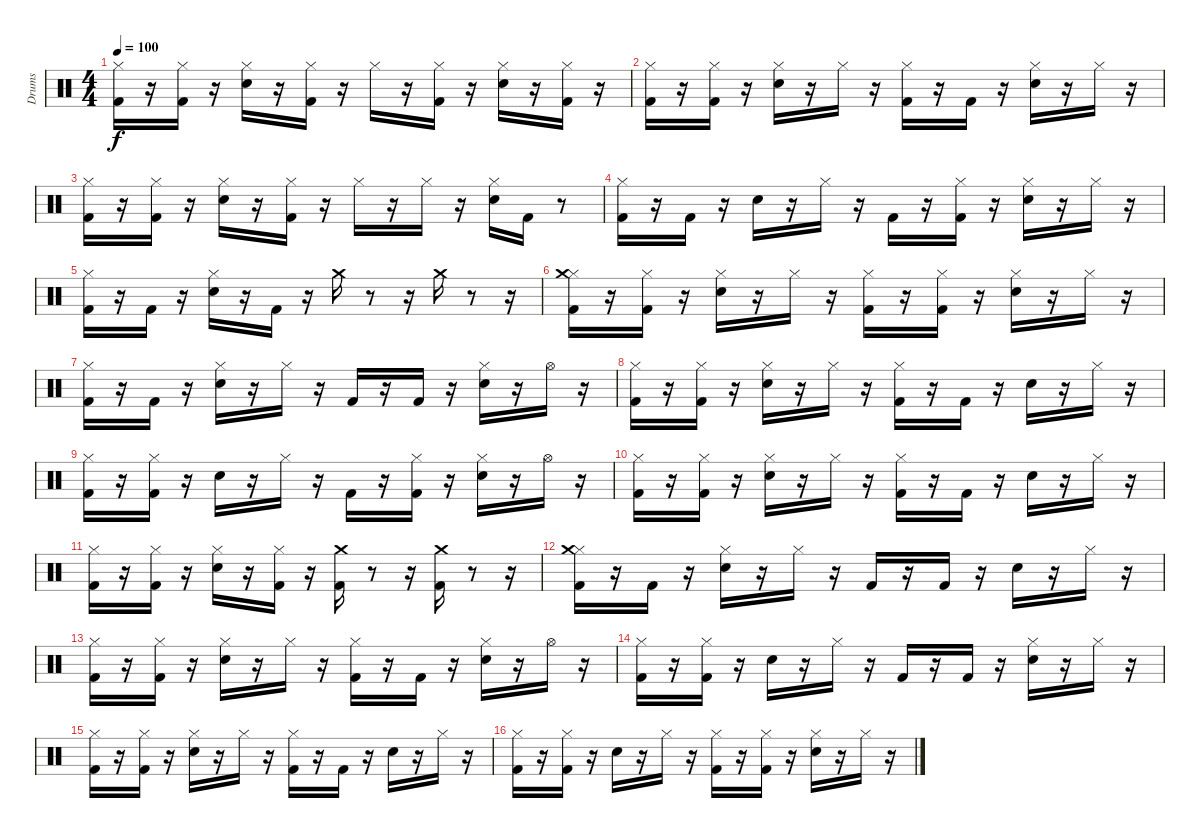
\bracketExtendMode groupsimilarinstruments
\otherSystemsTrackNameOrientation horizontal
\track ("Drumkit" "Drums") {instrument percussion}
\staff {score}
\articulation defaults
\ts (4 4)
\tempo 100
\clef neutral
\ks c
("Kick (hit) 2" "Hi-Hat (closed)").16{dy f beam Down} r.16{beam Down} ("Kick (hit) 2" "Hi-Hat (closed)").16{beam Down} r.16{beam Down} ("Snare (hit) 2" "Hi-Hat (closed)").16{beam Down} r.16{beam Down} ("Kick (hit) 2" "Hi-Hat (closed)").16{beam Down} r.16{beam Down} "Hi-Hat (closed)".16{beam Down} r.16{beam Down} ("Kick (hit) 2" "Hi-Hat (closed)").16{beam Down} r.16{beam Down} ("Snare (hit) 2" "Hi-Hat (closed)").16{beam Down} r.16{beam Down} ("Kick (hit) 2" "Hi-Hat (closed)").16{beam Down} r.16{beam Down} |
("Kick (hit) 2" "Hi-Hat (closed)").16{beam Down} r.16{beam Down} ("Kick (hit) 2" "Hi-Hat (closed)").16{beam Down} r.16{beam Down} ("Snare (hit) 2" "Hi-Hat (closed)").16{beam Down} r.16{beam Down} "Hi-Hat (closed)".16{beam Down} r.16{beam Down} ("Kick (hit) 2" "Hi-Hat (closed)").16{beam Down} r.16{beam Down} "Kick (hit) 2".16{beam Down} r.16{beam Down} ("Snare (hit) 2" "Hi-Hat (closed)").16{beam Down} r.16{beam Down} "Hi-Hat (closed)".16{beam Down} r.16{beam Down} |
("Kick (hit) 2" "Hi-Hat (closed)").16{beam Down} r.16{beam Down} ("Kick (hit) 2" "Hi-Hat (closed)").16{beam Down} r.16{beam Down} ("Snare (hit) 2" "Hi-Hat (closed)").16{beam Down} r.16{beam Down} ("Kick (hit) 2" "Hi-Hat (closed)").16{beam Down} r.16{beam Down} "Hi-Hat (closed)".16{beam Down} r.16{beam Down} "Hi-Hat (closed)".16{beam Down} r.16{beam Down} ("Snare (hit) 2" "Hi-Hat (closed)").16{beam Down} "Kick (hit) 2".16{beam Down} r.8{beam Down} |
("Kick (hit) 2" "Hi-Hat (closed)").16{beam Down} r.16{beam Down} "Kick (hit) 2".16{beam Down} r.16{beam Down} "Snare (hit) 2".16{beam Down} r.16{beam Down} "Hi-Hat (closed)".16{beam Down} r.16{beam Down} "Kick (hit) 2".16{beam Down} r.16{beam Down} ("Kick (hit) 2" "Hi-Hat (closed)").16{beam Down} r.16{beam Down} ("Snare (hit) 2" "Hi-Hat (closed)").16{beam Down} r.16{beam Down} "Hi-Hat (closed)".16{beam Down} r.16{beam Down} |
("Kick (hit) 2" "Hi-Hat (closed)").16{beam Down} r.16{beam Down} "Kick (hit) 2".16{beam Down} r.16{beam Down} ("Snare (hit) 2" "Hi-Hat (closed)").16{beam Down} r.16{beam Down} "Kick (hit) 2".16{beam Down} r.16{beam Down} "Crash medium (hit)".16{beam Down} r.8{beam Down} r.16{beam Down} "Crash medium (hit)".16{beam Down} r.8{beam Down} r.16{beam Down} |
("Kick (hit) 2" "Hi-Hat (closed)" "Crash medium (hit)").16{beam Down} r.16{beam Down} ("Kick (hit) 2" "Hi-Hat (closed)").16{beam Down} r.16{beam Down} ("Snare (hit) 2" "Hi-Hat (closed)").16{beam Down} r.16{beam Down} "Hi-Hat (closed)".16{beam Down} r.16{beam Down} ("Kick (hit) 2" "Hi-Hat (closed)").16{beam Down} r.16{beam Down} ("Kick (hit) 2" "Hi-Hat (closed)").16{beam Down} r.16{beam Down} ("Snare (hit) 2" "Hi-Hat (closed)").16{beam Down} r.16{beam Down} "Hi-Hat (closed)".16{beam Down} r.16{beam Down} |
("Kick (hit) 2" "Hi-Hat (closed)").16{beam Down} r.16{beam Down} "Kick (hit) 2".16{beam Down} r.16{beam Down} ("Snare (hit) 2" "Hi-Hat (closed)").16{beam Down} r.16{beam Down} "Hi-Hat (closed)".16{beam Down} r.16{beam Down} "Kick (hit) 2".16{beam Up} r.16{beam Up} "Kick (hit) 2".16{beam Up} r.16{beam Up} ("Snare (hit) 2" "Hi-Hat (closed)").16{beam Down} r.16{beam Down} "Hi-Hat (open)".16{beam Down} r.16{beam Down} |
("Kick (hit) 2" "Hi-Hat (closed)").16{beam Down} r.16{beam Down} ("Kick (hit) 2" "Hi-Hat (closed)").16{beam Down} r.16{beam Down} ("Snare (hit) 2" "Hi-Hat (closed)").16{beam Down} r.16{beam Down} "Hi-Hat (closed)".16{beam Down} r.16{beam Down} ("Kick (hit) 2" "Hi-Hat (closed)").16{beam Down} r.16{beam Down} "Kick (hit) 2".16{beam Down} r.16{beam Down} "Snare (hit) 2".16{beam Down} r.16{beam Down} "Hi-Hat (closed)".16{beam Down} r.16{beam Down} |
("Kick (hit) 2" "Hi-Hat (closed)").16{beam Down} r.16{beam Down} ("Kick (hit) 2" "Hi-Hat (closed)").16{beam Down} r.16{beam Down} "Snare (hit) 2".16{beam Down} r.16{beam Down} "Hi-Hat (closed)".16{beam Down} r.16{beam Down} "Kick (hit) 2".16{beam Down} r.16{beam Down} ("Kick (hit) 2" "Hi-Hat (closed)").16{beam Down} r.16{beam Down} ("Snare (hit) 2" "Hi-Hat (closed)").16{beam Down} r.16{beam Down} "Hi-Hat (open)".16{beam Down} r.16{beam Down} |
("Kick (hit) 2" "Hi-Hat (closed)").16{beam Down} r.16{beam Down} ("Kick (hit) 2" "Hi-Hat (closed)").16{beam Down} r.16{beam Down} ("Snare (hit) 2" "Hi-Hat (closed)").16{beam Down} r.16{beam Down} "Hi-Hat (closed)".16{beam Down} r.16{beam Down} ("Kick (hit) 2" "Hi-Hat (closed)").16{beam Down} r.16{beam Down} "Kick (hit) 2".16{beam Down} r.16{beam Down} "Snare (hit) 2".16{beam Down} r.16{beam Down} "Hi-Hat (closed)".16{beam Down} r.16{beam Down} |
("Kick (hit) 2" "Hi-Hat (closed)").16{beam Down} r.16{beam Down} ("Kick (hit) 2" "Hi-Hat (closed)").16{beam Down} r.16{beam Down} ("Snare (hit) 2" "Hi-Hat (closed)").16{beam Down} r.16{beam Down} ("Kick (hit) 2" "Hi-Hat (closed)").16{beam Down} r.16{beam Down} ("Kick (hit) 2" "Crash medium (hit)").16{beam Down} r.8{beam Down} r.16{beam Down} ("Kick (hit) 2" "Crash medium (hit)").16{beam Down} r.8{beam Down} r.16{beam Down} |
("Kick (hit) 2" "Hi-Hat (closed)" "Crash medium (hit)").16{beam Down} r.16{beam Down} "Kick (hit) 2".16{beam Down} r.16{beam Down} ("Snare (hit) 2" "Hi-Hat (closed)").16{beam Down} r.16{beam Down} "Hi-Hat (closed)".16{beam Down} r.16{beam Down} "Kick (hit) 2".16{beam Up} r.16{beam Up} "Kick (hit) 2".16{beam Up} r.16{beam Up} "Snare (hit) 2".16{beam Down} r.16{beam Down} "Hi-Hat (closed)".16{beam Down} r.16{beam Down} |
("Kick (hit) 2" "Hi-Hat (closed)").16{beam Down} r.16{beam Down} ("Kick (hit) 2" "Hi-Hat (closed)").16{beam Down} r.16{beam Down} ("Snare (hit) 2" "Hi-Hat (closed)").16{beam Down} r.16{beam Down} "Hi-Hat (closed)".16{beam Down} r.16{beam Down} ("Kick (hit) 2" "Hi-Hat (closed)").16{beam Down} r.16{beam Down} "Kick (hit) 2".16{beam Down} r.16{beam Down} ("Snare (hit) 2" "Hi-Hat (closed)").16{beam Down} r.16{beam Down} "Hi-Hat (open)".16{beam Down} r.16{beam Down} |
("Kick (hit) 2" "Hi-Hat (closed)").16{beam Down} r.16{beam Down} ("Kick (hit) 2" "Hi-Hat (closed)").16{beam Down} r.16{beam Down} "Snare (hit) 2".16{beam Down} r.16{beam Down} "Hi-Hat (closed)".16{beam Down} r.16{beam Down} "Kick (hit) 2".16{beam Up} r.16{beam Up} "Kick (hit) 2".16{beam Up} r.16{beam Up} ("Snare (hit) 2" "Hi-Hat (closed)").16{beam Down} r.16{beam Down} "Hi-Hat (closed)".16{beam Down} r.16{beam Down} |
("Kick (hit) 2" "Hi-Hat (closed)").16{beam Down} r.16{beam Down} ("Kick (hit) 2" "Hi-Hat (closed)").16{beam Down} r.16{beam Down} ("Snare (hit) 2" "Hi-Hat (closed)").16{beam Down} r.16{beam Down} "Hi-Hat (closed)".16{beam Down} r.16{beam Down} ("Kick (hit) 2" "Hi-Hat (closed)").16{beam Down} r.16{beam Down} "Kick (hit) 2".16{beam Down} r.16{beam Down} "Snare (hit) 2".16{beam Down} r.16{beam Down} "Hi-Hat (closed)".16{beam Down} r.16{beam Down} |
("Kick (hit) 2" "Hi-Hat (closed)").16{beam Down} r.16{beam Down} ("Kick (hit) 2" "Hi-Hat (closed)").16{beam Down} r.16{beam Down} "Snare (hit) 2".16{beam Down} r.16{beam Down} "Hi-Hat (closed)".16{beam Down} r.16{beam Down} ("Kick (hit) 2" "Hi-Hat (closed)").16{beam Down} r.16{beam Down} ("Kick (hit) 2" "Hi-Hat (closed)").16{beam Down} r.16{beam Down} ("Snare (hit) 2" "Hi-Hat (closed)").16{beam Down} r.16{beam Down} "Hi-Hat (closed)".16{beam Down} r.16{beam Down}
